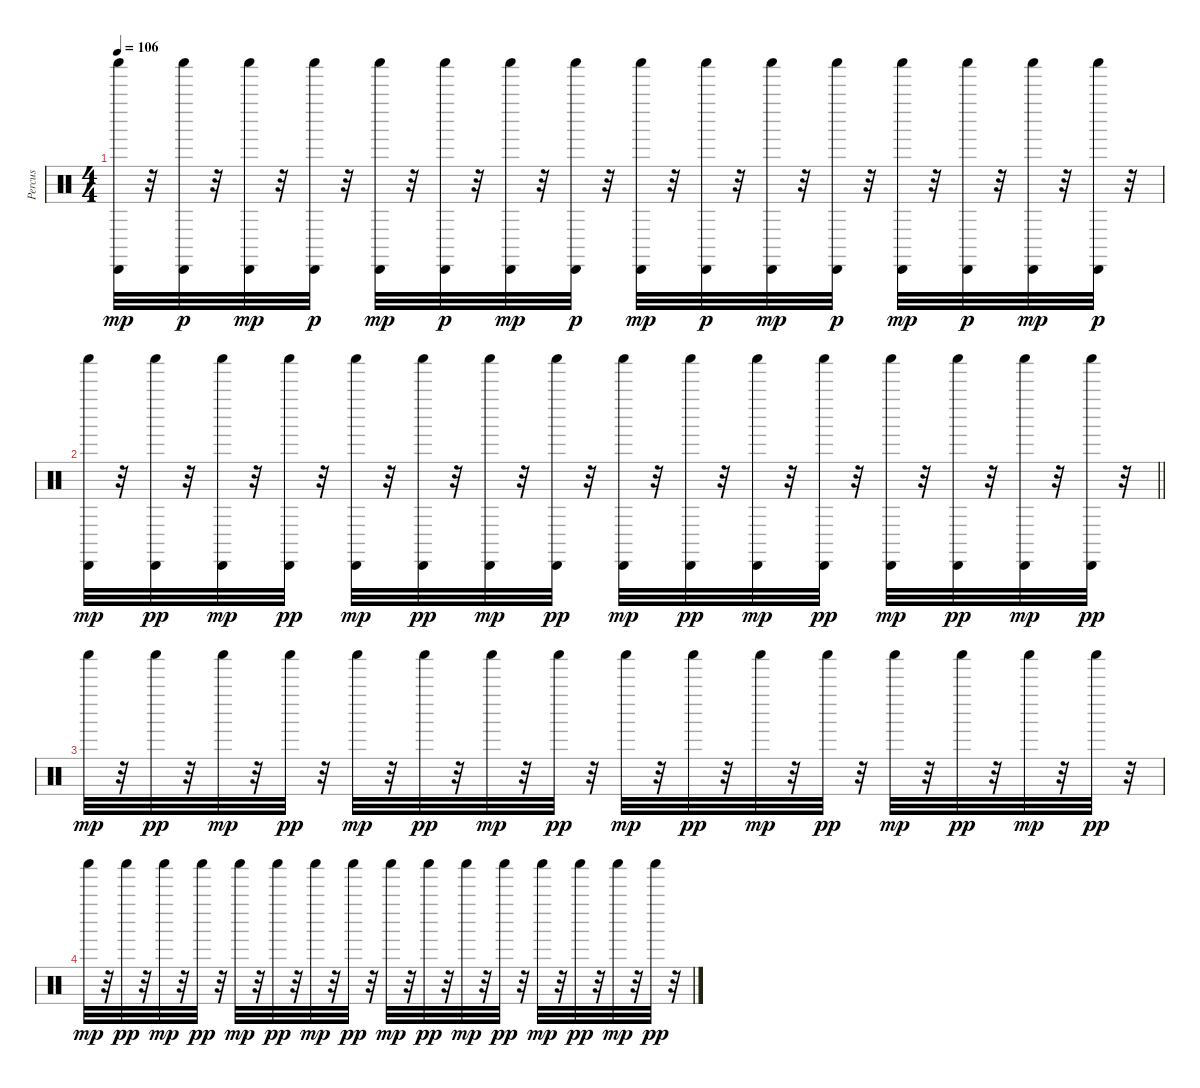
\track ("Percus" "Percus") {instrument percussion}
\staff {score}
\articulation defaults
\ts (4 4)
\tempo 106
\clef neutral
\ks c
("Shaker (hit)" "Cabasa (hit)").32{dy mp} r.32 ("Shaker (hit)" "Cabasa (hit)").32{dy p} r.32 ("Shaker (hit)" "Cabasa (hit)").32{dy mp} r.32 ("Shaker (hit)" "Cabasa (hit)").32{dy p} r.32 ("Shaker (hit)" "Cabasa (hit)").32{dy mp} r.32 ("Shaker (hit)" "Cabasa (hit)").32{dy p} r.32 ("Shaker (hit)" "Cabasa (hit)").32{dy mp} r.32 ("Shaker (hit)" "Cabasa (hit)").32{dy p} r.32 ("Shaker (hit)" "Cabasa (hit)").32{dy mp} r.32 ("Shaker (hit)" "Cabasa (hit)").32{dy p} r.32 ("Shaker (hit)" "Cabasa (hit)").32{dy mp} r.32 ("Shaker (hit)" "Cabasa (hit)").32{dy p} r.32 ("Shaker (hit)" "Cabasa (hit)").32{dy mp} r.32 ("Shaker (hit)" "Cabasa (hit)").32{dy p} r.32 ("Shaker (hit)" "Cabasa (hit)").32{dy mp} r.32 ("Shaker (hit)" "Cabasa (hit)").32{dy p} r.32 |
\barLineRight lightlight
("Cabasa (hit)" "Shaker (hit)").32{dy mp} r.32 ("Cabasa (hit)" "Shaker (hit)").32{dy pp} r.32 ("Cabasa (hit)" "Shaker (hit)").32{dy mp} r.32 ("Cabasa (hit)" "Shaker (hit)").32{dy pp} r.32 ("Cabasa (hit)" "Shaker (hit)").32{dy mp} r.32 ("Cabasa (hit)" "Shaker (hit)").32{dy pp} r.32 ("Cabasa (hit)" "Shaker (hit)").32{dy mp} r.32 ("Cabasa (hit)" "Shaker (hit)").32{dy pp} r.32 ("Cabasa (hit)" "Shaker (hit)").32{dy mp} r.32 ("Cabasa (hit)" "Shaker (hit)").32{dy pp} r.32 ("Cabasa (hit)" "Shaker (hit)").32{dy mp} r.32 ("Cabasa (hit)" "Shaker (hit)").32{dy pp} r.32 ("Cabasa (hit)" "Shaker (hit)").32{dy mp} r.32 ("Cabasa (hit)" "Shaker (hit)").32{dy pp} r.32 ("Cabasa (hit)" "Shaker (hit)").32{dy mp} r.32 ("Cabasa (hit)" "Shaker (hit)").32{dy pp} r.32 |
"Shaker (hit)".32{dy mp} r.32 "Shaker (hit)".32{dy pp} r.32 "Shaker (hit)".32{dy mp} r.32 "Shaker (hit)".32{dy pp} r.32 "Shaker (hit)".32{dy mp} r.32 "Shaker (hit)".32{dy pp} r.32 "Shaker (hit)".32{dy mp} r.32 "Shaker (hit)".32{dy pp} r.32 "Shaker (hit)".32{dy mp} r.32 "Shaker (hit)".32{dy pp} r.32 "Shaker (hit)".32{dy mp} r.32 "Shaker (hit)".32{dy pp} r.32 "Shaker (hit)".32{dy mp} r.32 "Shaker (hit)".32{dy pp} r.32 "Shaker (hit)".32{dy mp} r.32 "Shaker (hit)".32{dy pp} r.32 |
"Shaker (hit)".32{dy mp} r.32 "Shaker (hit)".32{dy pp} r.32 "Shaker (hit)".32{dy mp} r.32 "Shaker (hit)".32{dy pp} r.32 "Shaker (hit)".32{dy mp} r.32 "Shaker (hit)".32{dy pp} r.32 "Shaker (hit)".32{dy mp} r.32 "Shaker (hit)".32{dy pp} r.32 "Shaker (hit)".32{dy mp} r.32 "Shaker (hit)".32{dy pp} r.32 "Shaker (hit)".32{dy mp} r.32 "Shaker (hit)".32{dy pp} r.32 "Shaker (hit)".32{dy mp} r.32 "Shaker (hit)".32{dy pp} r.32 "Shaker (hit)".32{dy mp} r.32 "Shaker (hit)".32{dy pp} r.32
